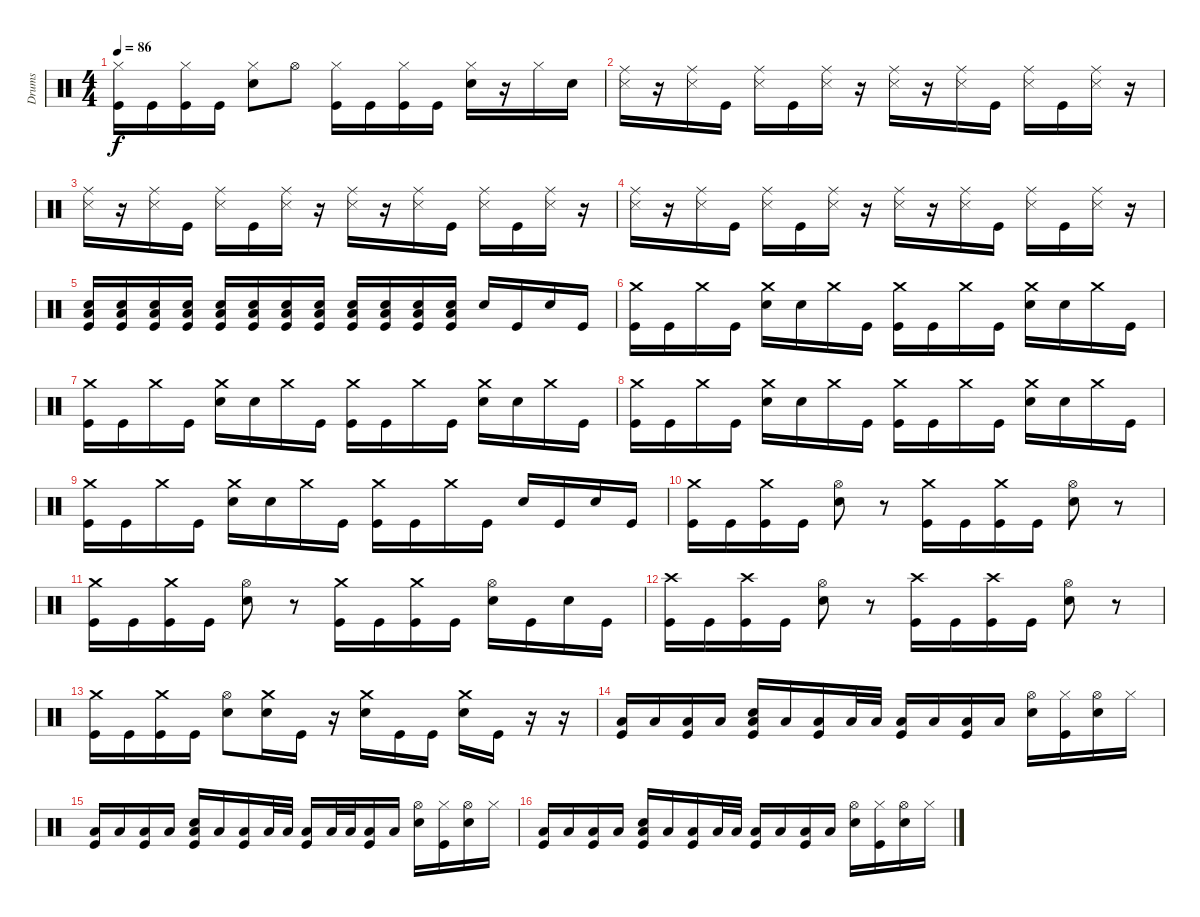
\track ("Drums" "Drums") {instrument percussion}
\staff {score}
\articulation defaults
\ts (4 4)
\tempo 86
\clef neutral
\ks c
("Hi-Hat (closed)" "Kick (hit)").16{dy f} "Kick (hit)".16 ("Hi-Hat (closed)" "Kick (hit)").16 "Kick (hit)".16 ("Hi-Hat (closed)" "Electric Snare (hit)").8 "Hi-Hat (open)".8 ("Hi-Hat (closed)" "Kick (hit)").16 "Kick (hit)".16 ("Hi-Hat (closed)" "Kick (hit)").16 "Kick (hit)".16 ("Hi-Hat (closed)" "Electric Snare (hit)").16 r.16 "Hi-Hat (closed)".16 "Electric Snare (hit)".16 |
("Ride (middle)" "Snare (side stick) 3").16 r.16 ("Ride (middle)" "Snare (side stick) 3").16 "Kick (hit)".16 ("Ride (middle)" "Snare (side stick) 3").16 "Kick (hit)".16 ("Ride (middle)" "Snare (side stick) 3").16 r.16 ("Ride (middle)" "Snare (side stick) 3").16 r.16 ("Ride (middle)" "Snare (side stick) 3").16 "Kick (hit)".16 ("Ride (middle)" "Snare (side stick) 3").16 "Kick (hit)".16 ("Ride (middle)" "Snare (side stick) 3").16 r.16 |
("Ride (middle)" "Snare (side stick) 3").16 r.16 ("Ride (middle)" "Snare (side stick) 3").16 "Kick (hit)".16 ("Ride (middle)" "Snare (side stick) 3").16 "Kick (hit)".16 ("Ride (middle)" "Snare (side stick) 3").16 r.16 ("Ride (middle)" "Snare (side stick) 3").16 r.16 ("Ride (middle)" "Snare (side stick) 3").16 "Kick (hit)".16 ("Ride (middle)" "Snare (side stick) 3").16 "Kick (hit)".16 ("Ride (middle)" "Snare (side stick) 3").16 r.16 |
("Ride (middle)" "Snare (side stick) 3").16 r.16 ("Ride (middle)" "Snare (side stick) 3").16 "Kick (hit)".16 ("Ride (middle)" "Snare (side stick) 3").16 "Kick (hit)".16 ("Ride (middle)" "Snare (side stick) 3").16 r.16 ("Ride (middle)" "Snare (side stick) 3").16 r.16 ("Ride (middle)" "Snare (side stick) 3").16 "Kick (hit)".16 ("Ride (middle)" "Snare (side stick) 3").16 "Kick (hit)".16 ("Ride (middle)" "Snare (side stick) 3").16 r.16{volume 3} |
("Electric Snare (hit)" "Low Floor Tom (hit)" "Kick (hit)").16{volume 13} ("Electric Snare (hit)" "Low Floor Tom (hit)" "Kick (hit)").16 ("Electric Snare (hit)" "Low Floor Tom (hit)" "Kick (hit)").16 ("Electric Snare (hit)" "Low Floor Tom (hit)" "Kick (hit)").16 ("Electric Snare (hit)" "Low Floor Tom (hit)" "Kick (hit)").16 ("Electric Snare (hit)" "Low Floor Tom (hit)" "Kick (hit)").16 ("Electric Snare (hit)" "Low Floor Tom (hit)" "Kick (hit)").16 ("Electric Snare (hit)" "Low Floor Tom (hit)" "Kick (hit)").16 ("Electric Snare (hit)" "Low Floor Tom (hit)" "Kick (hit)").16 ("Electric Snare (hit)" "Low Floor Tom (hit)" "Kick (hit)").16 ("Electric Snare (hit)" "Low Floor Tom (hit)" "Kick (hit)").16 ("Electric Snare (hit)" "Low Floor Tom (hit)" "Kick (hit)").16 "Electric Snare (hit)".16 "Kick (hit)".16 "Electric Snare (hit)".16 "Kick (hit)".16 |
("Crash medium (hit)" "Kick (hit)").16{volume 13} "Kick (hit)".16 "Crash medium (hit)".16 "Kick (hit)".16 ("Crash medium (hit)" "Electric Snare (hit)").16 "Electric Snare (hit)".16 "Crash medium (hit)".16 "Kick (hit)".16 ("Crash medium (hit)" "Kick (hit)").16 "Kick (hit)".16 "Crash medium (hit)".16 "Kick (hit)".16 ("Crash medium (hit)" "Electric Snare (hit)").16 "Electric Snare (hit)".16 "Crash medium (hit)".16 "Kick (hit)".16 |
("Crash medium (hit)" "Kick (hit)").16{volume 13} "Kick (hit)".16 "Crash medium (hit)".16 "Kick (hit)".16 ("Crash medium (hit)" "Electric Snare (hit)").16 "Electric Snare (hit)".16 "Crash medium (hit)".16 "Kick (hit)".16 ("Crash medium (hit)" "Kick (hit)").16 "Kick (hit)".16 "Crash medium (hit)".16 "Kick (hit)".16 ("Crash medium (hit)" "Electric Snare (hit)").16 "Electric Snare (hit)".16 "Crash medium (hit)".16 "Kick (hit)".16 |
("Crash medium (hit)" "Kick (hit)").16{volume 13} "Kick (hit)".16 "Crash medium (hit)".16 "Kick (hit)".16 ("Crash medium (hit)" "Electric Snare (hit)").16 "Electric Snare (hit)".16 "Crash medium (hit)".16 "Kick (hit)".16 ("Crash medium (hit)" "Kick (hit)").16 "Kick (hit)".16 "Crash medium (hit)".16 "Kick (hit)".16 ("Crash medium (hit)" "Electric Snare (hit)").16 "Electric Snare (hit)".16 "Crash medium (hit)".16 "Kick (hit)".16 |
("Crash medium (hit)" "Kick (hit)").16{volume 13} "Kick (hit)".16 "Crash medium (hit)".16 "Kick (hit)".16 ("Crash medium (hit)" "Electric Snare (hit)").16 "Electric Snare (hit)".16 "Crash medium (hit)".16 "Kick (hit)".16 ("Crash medium (hit)" "Kick (hit)").16 "Kick (hit)".16 "Crash medium (hit)".16 "Kick (hit)".16 "Electric Snare (hit)".16 "Kick (hit)".16 "Electric Snare (hit)".16 "Kick (hit)".16 |
("Crash medium (hit)" "Kick (hit)").16 "Kick (hit)".16 ("Crash medium (hit)" "Kick (hit)").16 "Kick (hit)".16 ("Hi-Hat (open)" "Electric Snare (hit)").8 r.8 ("Crash medium (hit)" "Kick (hit)").16 "Kick (hit)".16 ("Crash medium (hit)" "Kick (hit)").16 "Kick (hit)".16 ("Hi-Hat (open)" "Electric Snare (hit)").8 r.8 |
("Crash medium (hit)" "Kick (hit)").16 "Kick (hit)".16 ("Crash medium (hit)" "Kick (hit)").16 "Kick (hit)".16 ("Hi-Hat (open)" "Electric Snare (hit)").8 r.8 ("Crash medium (hit)" "Kick (hit)").16 "Kick (hit)".16 ("Crash medium (hit)" "Kick (hit)").16 "Kick (hit)".16 ("Hi-Hat (open)" "Electric Snare (hit)").16 "Kick (hit)".16 "Electric Snare (hit)".16 "Kick (hit)".16 |
("Crash high (hit)" "Kick (hit)").16 "Kick (hit)".16 ("Crash high (hit)" "Kick (hit)").16 "Kick (hit)".16 ("Hi-Hat (open)" "Electric Snare (hit)").8 r.8 ("Crash high (hit)" "Kick (hit)").16 "Kick (hit)".16 ("Crash high (hit)" "Kick (hit)").16 "Kick (hit)".16 ("Hi-Hat (open)" "Electric Snare (hit)").8 r.8 |
("Crash medium (hit)" "Kick (hit)").16 "Kick (hit)".16 ("Crash medium (hit)" "Kick (hit)").16 "Kick (hit)".16 ("Hi-Hat (open)" "Electric Snare (hit)").8 ("Crash medium (hit)" "Electric Snare (hit)").16 "Kick (hit)".16 r.16 ("Crash medium (hit)" "Electric Snare (hit)").16 "Kick (hit)".16 "Kick (hit)".16 ("Crash medium (hit)" "Electric Snare (hit)").16 "Kick (hit)".16 r.16 r.16 |
("Low Floor Tom (hit)" "Kick (hit)").16 "Low Floor Tom (hit)".16 ("Low Floor Tom (hit)" "Kick (hit)").16 "Low Floor Tom (hit)".16 ("Electric Snare (hit)" "Low Floor Tom (hit)" "Kick (hit)").16 "Low Floor Tom (hit)".16 ("Low Floor Tom (hit)" "Kick (hit)").16 "Low Floor Tom (hit)".32 "Low Floor Tom (hit)".32 ("Low Floor Tom (hit)" "Kick (hit)").16 "Low Floor Tom (hit)".16 ("Low Floor Tom (hit)" "Kick (hit)").16 "Low Floor Tom (hit)".16 ("Hi-Hat (open)" "Electric Snare (hit)").16 ("Hi-Hat (closed)" "Kick (hit)").16 ("Hi-Hat (open)" "Electric Snare (hit)").16 "Hi-Hat (closed)".16 |
("Low Floor Tom (hit)" "Kick (hit)").16 "Low Floor Tom (hit)".16 ("Low Floor Tom (hit)" "Kick (hit)").16 "Low Floor Tom (hit)".16 ("Electric Snare (hit)" "Low Floor Tom (hit)" "Kick (hit)").16 "Low Floor Tom (hit)".16 ("Low Floor Tom (hit)" "Kick (hit)").16 "Low Floor Tom (hit)".32 "Low Floor Tom (hit)".32 ("Low Floor Tom (hit)" "Kick (hit)").16 "Low Floor Tom (hit)".32 "Low Floor Tom (hit)".32 ("Low Floor Tom (hit)" "Kick (hit)").16 "Low Floor Tom (hit)".16 ("Hi-Hat (open)" "Electric Snare (hit)").16 ("Hi-Hat (closed)" "Kick (hit)").16 ("Hi-Hat (open)" "Electric Snare (hit)").16 "Hi-Hat (closed)".16 |
("Low Floor Tom (hit)" "Kick (hit)").16 "Low Floor Tom (hit)".16 ("Low Floor Tom (hit)" "Kick (hit)").16 "Low Floor Tom (hit)".16 ("Electric Snare (hit)" "Low Floor Tom (hit)" "Kick (hit)").16 "Low Floor Tom (hit)".16 ("Low Floor Tom (hit)" "Kick (hit)").16 "Low Floor Tom (hit)".32 "Low Floor Tom (hit)".32 ("Low Floor Tom (hit)" "Kick (hit)").16 "Low Floor Tom (hit)".16 ("Low Floor Tom (hit)" "Kick (hit)").16 "Low Floor Tom (hit)".16 ("Hi-Hat (open)" "Electric Snare (hit)").16 ("Hi-Hat (closed)" "Kick (hit)").16 ("Hi-Hat (open)" "Electric Snare (hit)").16 "Hi-Hat (closed)".16
